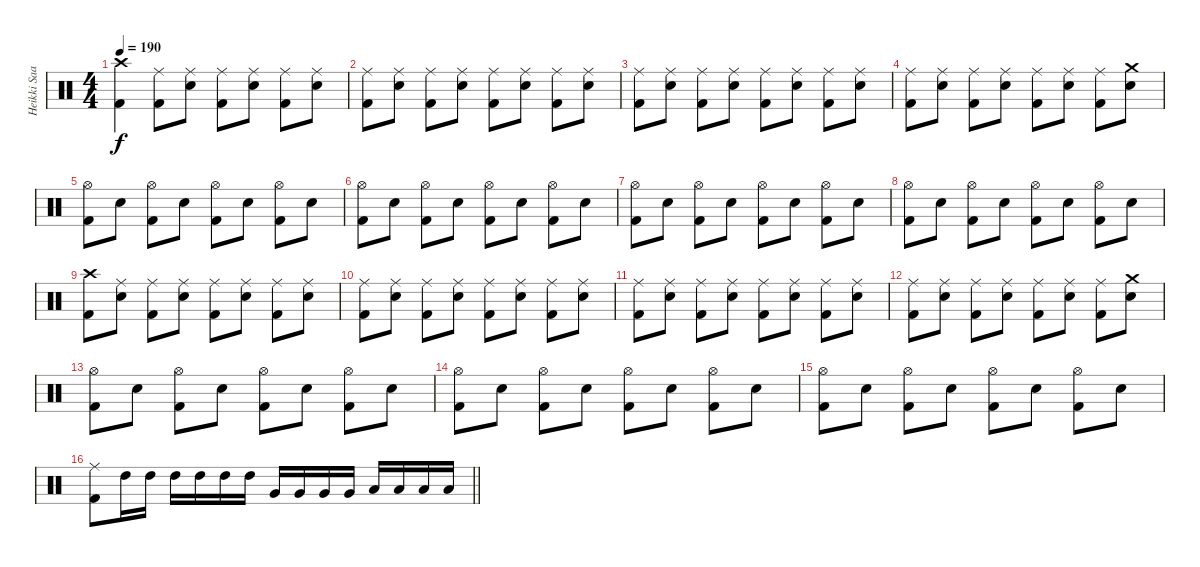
\track ("Heikki Saari" "Heikki Saa") {instrument percussion}
\staff {score}
\articulation defaults
\ts (4 4)
\tempo 190
\clef neutral
\ks c
("Crash high (hit)" "Kick (hit) 2").4{dy f} ("Ride (middle)" "Kick (hit) 2").8 ("Ride (middle)" "Snare (hit) 2").8 ("Ride (middle)" "Kick (hit) 2").8 ("Ride (middle)" "Snare (hit) 2").8 ("Ride (middle)" "Kick (hit) 2").8 ("Ride (middle)" "Snare (hit) 2").8 |
("Ride (middle)" "Kick (hit) 2").8 ("Ride (middle)" "Snare (hit) 2").8 ("Ride (middle)" "Kick (hit) 2").8 ("Ride (middle)" "Snare (hit) 2").8 ("Ride (middle)" "Kick (hit) 2").8 ("Ride (middle)" "Snare (hit) 2").8 ("Ride (middle)" "Kick (hit) 2").8 ("Ride (middle)" "Snare (hit) 2").8 |
("Ride (middle)" "Kick (hit) 2").8 ("Ride (middle)" "Snare (hit) 2").8 ("Ride (middle)" "Kick (hit) 2").8 ("Ride (middle)" "Snare (hit) 2").8 ("Ride (middle)" "Kick (hit) 2").8 ("Ride (middle)" "Snare (hit) 2").8 ("Ride (middle)" "Kick (hit) 2").8 ("Ride (middle)" "Snare (hit) 2").8 |
("Ride (middle)" "Kick (hit) 2").8 ("Ride (middle)" "Snare (hit) 2").8 ("Ride (middle)" "Kick (hit) 2").8 ("Ride (middle)" "Snare (hit) 2").8 ("Ride (middle)" "Kick (hit) 2").8 ("Ride (middle)" "Snare (hit) 2").8 ("Ride (middle)" "Kick (hit) 2").8 ("Crash medium (hit)" "Snare (hit) 2").8 |
("Hi-Hat (open)" "Kick (hit) 2").8 "Snare (hit) 2".8 ("Hi-Hat (open)" "Kick (hit) 2").8 "Snare (hit) 2".8 ("Hi-Hat (open)" "Kick (hit) 2").8 "Snare (hit) 2".8 ("Hi-Hat (open)" "Kick (hit) 2").8 "Snare (hit) 2".8 |
("Hi-Hat (open)" "Kick (hit) 2").8 "Snare (hit) 2".8 ("Hi-Hat (open)" "Kick (hit) 2").8 "Snare (hit) 2".8 ("Hi-Hat (open)" "Kick (hit) 2").8 "Snare (hit) 2".8 ("Hi-Hat (open)" "Kick (hit) 2").8 "Snare (hit) 2".8 |
("Hi-Hat (open)" "Kick (hit) 2").8 "Snare (hit) 2".8 ("Hi-Hat (open)" "Kick (hit) 2").8 "Snare (hit) 2".8 ("Hi-Hat (open)" "Kick (hit) 2").8 "Snare (hit) 2".8 ("Hi-Hat (open)" "Kick (hit) 2").8 "Snare (hit) 2".8 |
("Hi-Hat (open)" "Kick (hit) 2").8 "Snare (hit) 2".8 ("Hi-Hat (open)" "Kick (hit) 2").8 "Snare (hit) 2".8 ("Hi-Hat (open)" "Kick (hit) 2").8 "Snare (hit) 2".8 ("Hi-Hat (open)" "Kick (hit) 2").8 "Snare (hit) 2".8 |
("Crash high (hit)" "Kick (hit) 2").8 ("Ride (middle)" "Snare (hit) 2").8 ("Ride (middle)" "Kick (hit) 2").8 ("Ride (middle)" "Snare (hit) 2").8 ("Ride (middle)" "Kick (hit) 2").8 ("Ride (middle)" "Snare (hit) 2").8 ("Ride (middle)" "Kick (hit) 2").8 ("Ride (middle)" "Snare (hit) 2").8 |
("Ride (middle)" "Kick (hit) 2").8 ("Ride (middle)" "Snare (hit) 2").8 ("Ride (middle)" "Kick (hit) 2").8 ("Ride (middle)" "Snare (hit) 2").8 ("Ride (middle)" "Kick (hit) 2").8 ("Ride (middle)" "Snare (hit) 2").8 ("Ride (middle)" "Kick (hit) 2").8 ("Ride (middle)" "Snare (hit) 2").8 |
("Ride (middle)" "Kick (hit) 2").8 ("Ride (middle)" "Snare (hit) 2").8 ("Ride (middle)" "Kick (hit) 2").8 ("Ride (middle)" "Snare (hit) 2").8 ("Ride (middle)" "Kick (hit) 2").8 ("Ride (middle)" "Snare (hit) 2").8 ("Ride (middle)" "Kick (hit) 2").8 ("Ride (middle)" "Snare (hit) 2").8 |
("Ride (middle)" "Kick (hit) 2").8 ("Ride (middle)" "Snare (hit) 2").8 ("Ride (middle)" "Kick (hit) 2").8 ("Ride (middle)" "Snare (hit) 2").8 ("Ride (middle)" "Kick (hit) 2").8 ("Ride (middle)" "Snare (hit) 2").8 ("Ride (middle)" "Kick (hit) 2").8 ("Crash medium (hit)" "Snare (hit) 2").8 |
("Hi-Hat (open)" "Kick (hit) 2").8 "Snare (hit) 2".8 ("Hi-Hat (open)" "Kick (hit) 2").8 "Snare (hit) 2".8 ("Hi-Hat (open)" "Kick (hit) 2").8 "Snare (hit) 2".8 ("Hi-Hat (open)" "Kick (hit) 2").8 "Snare (hit) 2".8 |
("Hi-Hat (open)" "Kick (hit) 2").8 "Snare (hit) 2".8 ("Hi-Hat (open)" "Kick (hit) 2").8 "Snare (hit) 2".8 ("Hi-Hat (open)" "Kick (hit) 2").8 "Snare (hit) 2".8 ("Hi-Hat (open)" "Kick (hit) 2").8 "Snare (hit) 2".8 |
("Hi-Hat (open)" "Kick (hit) 2").8 "Snare (hit) 2".8 ("Hi-Hat (open)" "Kick (hit) 2").8 "Snare (hit) 2".8 ("Hi-Hat (open)" "Kick (hit) 2").8 "Snare (hit) 2".8 ("Hi-Hat (open)" "Kick (hit) 2").8 "Snare (hit) 2".8 |
\barLineRight lightlight
("Ride (middle)" "Kick (hit) 2").8 "High Tom (hit)".16 "High Tom (hit)".16 "High Tom (hit)".16 "High Tom (hit)".16 "High Tom (hit)".16 "High Tom (hit)".16 "Very Low Tom (hit)".16 "Very Low Tom (hit)".16 "Very Low Tom (hit)".16 "Very Low Tom (hit)".16 "Low Floor Tom (hit)".16 "Low Floor Tom (hit)".16 "Low Floor Tom (hit)".16 "Low Floor Tom (hit)".16
